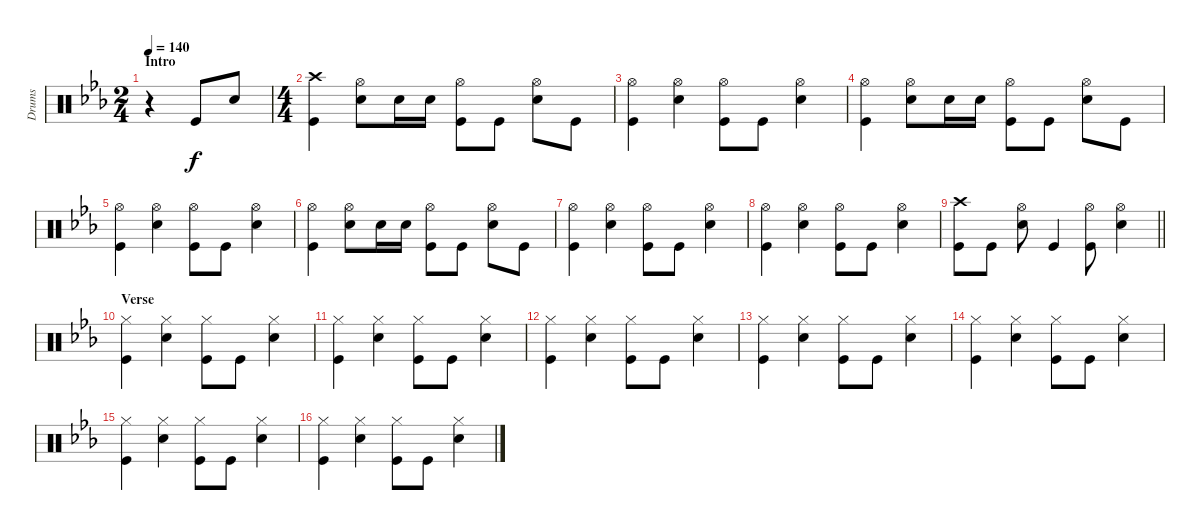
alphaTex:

\track ("Drums" "Drums") {instrument percussion}
\staff {score}
\articulation defaults
\ts (2 4)
\section ("" "Intro")
\tempo 140
\clef neutral
\ks eb
r.4{dy f} "Kick (hit)".8 "Snare (hit) 2".8 |
\ts (4 4)
("Crash high (hit)" "Kick (hit)").4 ("Hi-Hat (open)" "Snare (hit) 2").8 "Snare (hit) 2".16 "Snare (hit) 2".16 ("Hi-Hat (open)" "Kick (hit)").8 "Kick (hit)".8 ("Hi-Hat (open)" "Snare (hit) 2").8 "Kick (hit)".8 |
("Hi-Hat (open)" "Kick (hit)").4 ("Hi-Hat (open)" "Snare (hit) 2").4 ("Hi-Hat (open)" "Kick (hit)").8 "Kick (hit)".8 ("Hi-Hat (open)" "Snare (hit) 2").4 |
("Hi-Hat (open)" "Kick (hit)").4 ("Hi-Hat (open)" "Snare (hit) 2").8 "Snare (hit) 2".16 "Snare (hit) 2".16 ("Hi-Hat (open)" "Kick (hit)").8 "Kick (hit)".8 ("Hi-Hat (open)" "Snare (hit) 2").8 "Kick (hit)".8 |
("Hi-Hat (open)" "Kick (hit)").4 ("Hi-Hat (open)" "Snare (hit) 2").4 ("Hi-Hat (open)" "Kick (hit)").8 "Kick (hit)".8 ("Hi-Hat (open)" "Snare (hit) 2").4 |
("Hi-Hat (open)" "Kick (hit)").4 ("Hi-Hat (open)" "Snare (hit) 2").8 "Snare (hit) 2".16 "Snare (hit) 2".16 ("Hi-Hat (open)" "Kick (hit)").8 "Kick (hit)".8 ("Hi-Hat (open)" "Snare (hit) 2").8 "Kick (hit)".8 |
("Hi-Hat (open)" "Kick (hit)").4 ("Hi-Hat (open)" "Snare (hit) 2").4 ("Hi-Hat (open)" "Kick (hit)").8 "Kick (hit)".8 ("Hi-Hat (open)" "Snare (hit) 2").4 |
("Hi-Hat (open)" "Kick (hit)").4 ("Hi-Hat (open)" "Snare (hit) 2").4 ("Hi-Hat (open)" "Kick (hit)").8 "Kick (hit)".8 ("Hi-Hat (open)" "Snare (hit) 2").4 |
\barLineRight lightlight
("Crash high (hit)" "Kick (hit)").8 "Kick (hit)".8 ("Hi-Hat (open)" "Snare (hit) 2").8 "Kick (hit)".4 ("Hi-Hat (open)" "Kick (hit)").8 ("Hi-Hat (open)" "Snare (hit) 2").4 |
\section ("" "Verse")
("Hi-Hat (closed)" "Kick (hit)").4 ("Hi-Hat (closed)" "Snare (hit) 2").4 ("Hi-Hat (closed)" "Kick (hit)").8 "Kick (hit)".8 ("Hi-Hat (closed)" "Snare (hit) 2").4 |
("Hi-Hat (closed)" "Kick (hit)").4 ("Hi-Hat (closed)" "Snare (hit) 2").4 ("Hi-Hat (closed)" "Kick (hit)").8 "Kick (hit)".8 ("Hi-Hat (closed)" "Snare (hit) 2").4 |
("Hi-Hat (closed)" "Kick (hit)").4 ("Hi-Hat (closed)" "Snare (hit) 2").4 ("Hi-Hat (closed)" "Kick (hit)").8 "Kick (hit)".8 ("Hi-Hat (closed)" "Snare (hit) 2").4 |
("Hi-Hat (closed)" "Kick (hit)").4 ("Hi-Hat (closed)" "Snare (hit) 2").4 ("Hi-Hat (closed)" "Kick (hit)").8 "Kick (hit)".8 ("Hi-Hat (closed)" "Snare (hit) 2").4 |
("Hi-Hat (closed)" "Kick (hit)").4 ("Hi-Hat (closed)" "Snare (hit) 2").4 ("Hi-Hat (closed)" "Kick (hit)").8 "Kick (hit)".8 ("Hi-Hat (closed)" "Snare (hit) 2").4 |
("Hi-Hat (closed)" "Kick (hit)").4 ("Hi-Hat (closed)" "Snare (hit) 2").4 ("Hi-Hat (closed)" "Kick (hit)").8 "Kick (hit)".8 ("Hi-Hat (closed)" "Snare (hit) 2").4 |
("Hi-Hat (closed)" "Kick (hit)").4 ("Hi-Hat (closed)" "Snare (hit) 2").4 ("Hi-Hat (closed)" "Kick (hit)").8 "Kick (hit)".8 ("Hi-Hat (closed)" "Snare (hit) 2").4
